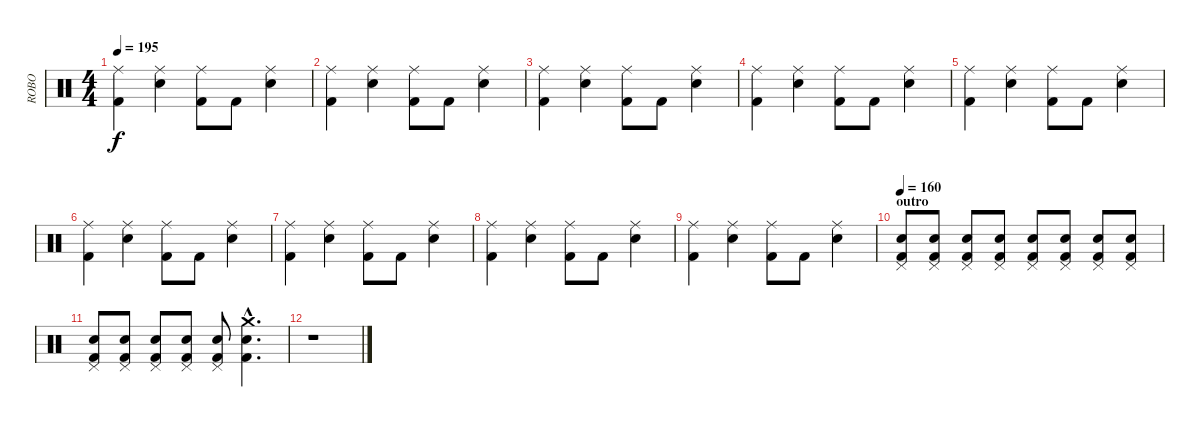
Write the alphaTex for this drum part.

\track ("ROBO" "ROBO") {instrument percussion}
\staff {score}
\articulation defaults
\ts (4 4)
\tempo 195
\clef neutral
\ks c
("Ride (middle)" "Kick (hit) 2").4{dy f} ("Ride (middle)" "Electric Snare (hit)").4 ("Ride (middle)" "Kick (hit) 2").8 "Kick (hit) 2".8 ("Ride (middle)" "Electric Snare (hit)").4 |
("Ride (middle)" "Kick (hit) 2").4 ("Ride (middle)" "Electric Snare (hit)").4 ("Ride (middle)" "Kick (hit) 2").8 "Kick (hit) 2".8 ("Ride (middle)" "Electric Snare (hit)").4 |
("Ride (middle)" "Kick (hit) 2").4 ("Ride (middle)" "Electric Snare (hit)").4 ("Ride (middle)" "Kick (hit) 2").8 "Kick (hit) 2".8 ("Ride (middle)" "Electric Snare (hit)").4 |
("Ride (middle)" "Kick (hit) 2").4 ("Ride (middle)" "Electric Snare (hit)").4 ("Ride (middle)" "Kick (hit) 2").8 "Kick (hit) 2".8 ("Ride (middle)" "Electric Snare (hit)").4 |
("Ride (middle)" "Kick (hit) 2").4 ("Ride (middle)" "Electric Snare (hit)").4 ("Ride (middle)" "Kick (hit) 2").8 "Kick (hit) 2".8 ("Ride (middle)" "Electric Snare (hit)").4 |
("Ride (middle)" "Kick (hit) 2").4 ("Ride (middle)" "Electric Snare (hit)").4 ("Ride (middle)" "Kick (hit) 2").8 "Kick (hit) 2".8 ("Ride (middle)" "Electric Snare (hit)").4 |
("Ride (middle)" "Kick (hit) 2").4 ("Ride (middle)" "Electric Snare (hit)").4 ("Ride (middle)" "Kick (hit) 2").8 "Kick (hit) 2".8 ("Ride (middle)" "Electric Snare (hit)").4 |
("Ride (middle)" "Kick (hit) 2").4 ("Ride (middle)" "Electric Snare (hit)").4 ("Ride (middle)" "Kick (hit) 2").8 "Kick (hit) 2".8 ("Ride (middle)" "Electric Snare (hit)").4 |
("Ride (middle)" "Kick (hit) 2").4 ("Ride (middle)" "Electric Snare (hit)").4 ("Ride (middle)" "Kick (hit) 2").8 "Kick (hit) 2".8 ("Ride (middle)" "Electric Snare (hit)").4 |
\section ("" "outro")
\tempo 160
("Kick (hit) 2" "Pedal Hi-Hat (hit)" "Electric Snare (hit)").8 ("Kick (hit) 2" "Pedal Hi-Hat (hit)" "Electric Snare (hit)").8 ("Kick (hit) 2" "Pedal Hi-Hat (hit)" "Electric Snare (hit)").8 ("Kick (hit) 2" "Pedal Hi-Hat (hit)" "Electric Snare (hit)").8 ("Kick (hit) 2" "Pedal Hi-Hat (hit)" "Electric Snare (hit)").8 ("Kick (hit) 2" "Pedal Hi-Hat (hit)" "Electric Snare (hit)").8 ("Kick (hit) 2" "Pedal Hi-Hat (hit)" "Electric Snare (hit)").8 ("Kick (hit) 2" "Pedal Hi-Hat (hit)" "Electric Snare (hit)").8 |
("Kick (hit) 2" "Pedal Hi-Hat (hit)" "Electric Snare (hit)").8 ("Kick (hit) 2" "Pedal Hi-Hat (hit)" "Electric Snare (hit)").8 ("Kick (hit) 2" "Pedal Hi-Hat (hit)" "Electric Snare (hit)").8 ("Kick (hit) 2" "Pedal Hi-Hat (hit)" "Electric Snare (hit)").8 ("Kick (hit) 2" "Pedal Hi-Hat (hit)" "Electric Snare (hit)").8 ("Kick (hit) 2"{hac} "Crash medium (hit)"{hac} "Electric Snare (hit)"{hac}).4{d} |
r.1
